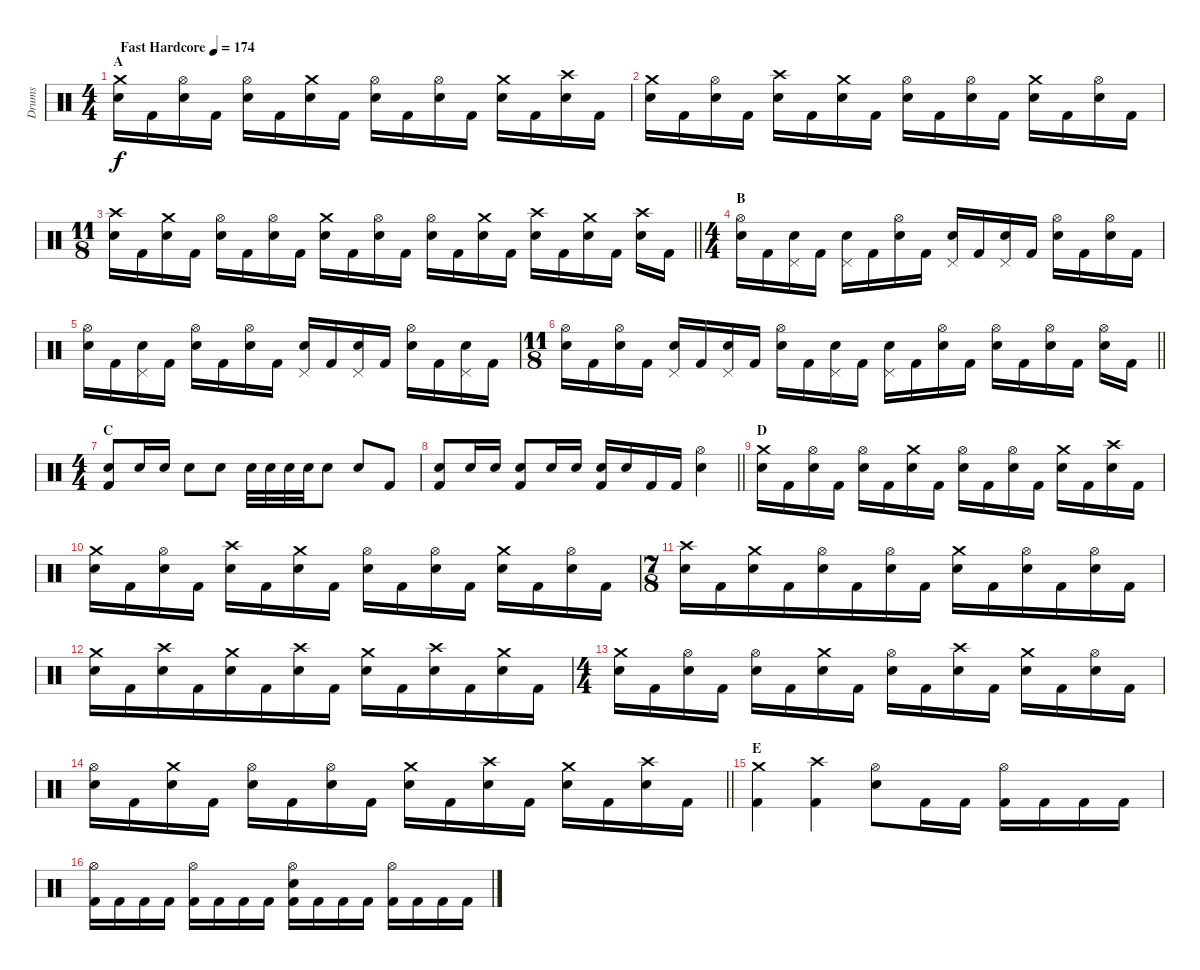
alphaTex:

\track ("Drums" "Drums") {instrument percussion}
\staff {score}
\articulation defaults
\ts (4 4)
\section ("" "A")
\tempo (174 "Fast Hardcore")
\clef neutral
\ks c
("Crash medium (hit)" "Electric Snare (hit)").16{dy f} "Kick (hit) 2".16 ("Hi-Hat (open)" "Electric Snare (hit)").16 "Kick (hit) 2".16 ("Hi-Hat (open)" "Electric Snare (hit)").16 "Kick (hit) 2".16 ("Crash medium (hit)" "Electric Snare (hit)").16 "Kick (hit) 2".16 ("Hi-Hat (open)" "Electric Snare (hit)").16 "Kick (hit) 2".16 ("Hi-Hat (open)" "Electric Snare (hit)").16 "Kick (hit) 2".16 ("Crash medium (hit)" "Electric Snare (hit)").16 "Kick (hit) 2".16 ("Crash high (hit)" "Electric Snare (hit)").16 "Kick (hit) 2".16 |
("Crash medium (hit)" "Electric Snare (hit)").16 "Kick (hit) 2".16 ("Hi-Hat (open)" "Electric Snare (hit)").16 "Kick (hit) 2".16 ("Crash high (hit)" "Electric Snare (hit)").16 "Kick (hit) 2".16 ("Crash medium (hit)" "Electric Snare (hit)").16 "Kick (hit) 2".16 ("Hi-Hat (open)" "Electric Snare (hit)").16 "Kick (hit) 2".16 ("Hi-Hat (open)" "Electric Snare (hit)").16 "Kick (hit) 2".16 ("Crash medium (hit)" "Electric Snare (hit)").16 "Kick (hit) 2".16 ("Hi-Hat (open)" "Electric Snare (hit)").16 "Kick (hit) 2".16 |
\ts (11 8)
\barLineRight lightlight
("Crash high (hit)" "Electric Snare (hit)").16 "Kick (hit) 2".16 ("Crash medium (hit)" "Electric Snare (hit)").16 "Kick (hit) 2".16 ("Hi-Hat (open)" "Electric Snare (hit)").16 "Kick (hit) 2".16 ("Hi-Hat (open)" "Electric Snare (hit)").16 "Kick (hit) 2".16 ("Crash medium (hit)" "Electric Snare (hit)").16 "Kick (hit) 2".16 ("Hi-Hat (open)" "Electric Snare (hit)").16 "Kick (hit) 2".16 ("Hi-Hat (open)" "Electric Snare (hit)").16 "Kick (hit) 2".16 ("Crash medium (hit)" "Electric Snare (hit)").16 "Kick (hit) 2".16 ("Crash high (hit)" "Electric Snare (hit)").16 "Kick (hit) 2".16 ("Crash medium (hit)" "Electric Snare (hit)").16 "Kick (hit) 2".16 ("Crash high (hit)" "Electric Snare (hit)").16 "Kick (hit) 2".16 |
\ts (4 4)
\section ("" "B")
("Hi-Hat (open)" "Electric Snare (hit)").16{volume 6} "Kick (hit) 2".16 ("Pedal Hi-Hat (hit)" "Electric Snare (hit)").16 "Kick (hit) 2".16 ("Pedal Hi-Hat (hit)" "Electric Snare (hit)").16 "Kick (hit) 2".16 ("Hi-Hat (open)" "Electric Snare (hit)").16 "Kick (hit) 2".16 ("Pedal Hi-Hat (hit)" "Electric Snare (hit)").16 "Kick (hit) 2".16 ("Pedal Hi-Hat (hit)" "Electric Snare (hit)").16 "Kick (hit) 2".16 ("Hi-Hat (open)" "Electric Snare (hit)").16 "Kick (hit) 2".16 ("Hi-Hat (open)" "Electric Snare (hit)").16 "Kick (hit) 2".16 |
("Hi-Hat (open)" "Electric Snare (hit)").16 "Kick (hit) 2".16 ("Pedal Hi-Hat (hit)" "Electric Snare (hit)").16 "Kick (hit) 2".16 ("Hi-Hat (open)" "Electric Snare (hit)").16 "Kick (hit) 2".16 ("Hi-Hat (open)" "Electric Snare (hit)").16 "Kick (hit) 2".16 ("Pedal Hi-Hat (hit)" "Electric Snare (hit)").16 "Kick (hit) 2".16 ("Pedal Hi-Hat (hit)" "Electric Snare (hit)").16 "Kick (hit) 2".16 ("Hi-Hat (open)" "Electric Snare (hit)").16 "Kick (hit) 2".16 ("Pedal Hi-Hat (hit)" "Electric Snare (hit)").16 "Kick (hit) 2".16 |
\ts (11 8)
\barLineRight lightlight
("Hi-Hat (open)" "Electric Snare (hit)").16 "Kick (hit) 2".16 ("Hi-Hat (open)" "Electric Snare (hit)").16 "Kick (hit) 2".16 ("Pedal Hi-Hat (hit)" "Electric Snare (hit)").16 "Kick (hit) 2".16 ("Pedal Hi-Hat (hit)" "Electric Snare (hit)").16 "Kick (hit) 2".16 ("Hi-Hat (open)" "Electric Snare (hit)").16 "Kick (hit) 2".16 ("Pedal Hi-Hat (hit)" "Electric Snare (hit)").16 "Kick (hit) 2".16 ("Pedal Hi-Hat (hit)" "Electric Snare (hit)").16 "Kick (hit) 2".16 ("Hi-Hat (open)" "Electric Snare (hit)").16 "Kick (hit) 2".16 ("Hi-Hat (open)" "Electric Snare (hit)").16 "Kick (hit) 2".16 ("Hi-Hat (open)" "Electric Snare (hit)").16 "Kick (hit) 2".16 ("Hi-Hat (open)" "Electric Snare (hit)").16 "Kick (hit) 2".16 |
\ts (4 4)
\section ("" "C")
("Electric Snare (hit)" "Kick (hit) 2").8{volume 14} "Electric Snare (hit)".16 "Electric Snare (hit)".16 "Electric Snare (hit)".8 "Electric Snare (hit)".8 "Electric Snare (hit)".32 "Electric Snare (hit)".32 "Electric Snare (hit)".32 "Electric Snare (hit)".32 "Electric Snare (hit)".8 "Electric Snare (hit)".8 "Kick (hit) 2".8 |
\barLineRight lightlight
("Electric Snare (hit)" "Kick (hit) 2").8 "Electric Snare (hit)".16 "Electric Snare (hit)".16 ("Electric Snare (hit)" "Kick (hit) 2").8 "Electric Snare (hit)".16 "Electric Snare (hit)".16 ("Electric Snare (hit)" "Kick (hit) 2").16 "Electric Snare (hit)".16 "Kick (hit) 2".16 "Kick (hit) 2".16 ("Hi-Hat (open)" "Electric Snare (hit)").4 |
\section ("" "D")
("Crash medium (hit)" "Electric Snare (hit)").16 "Kick (hit) 2".16 ("Hi-Hat (open)" "Electric Snare (hit)").16 "Kick (hit) 2".16 ("Hi-Hat (open)" "Electric Snare (hit)").16 "Kick (hit) 2".16 ("Crash medium (hit)" "Electric Snare (hit)").16 "Kick (hit) 2".16 ("Hi-Hat (open)" "Electric Snare (hit)").16 "Kick (hit) 2".16 ("Hi-Hat (open)" "Electric Snare (hit)").16 "Kick (hit) 2".16 ("Crash medium (hit)" "Electric Snare (hit)").16 "Kick (hit) 2".16 ("Crash high (hit)" "Electric Snare (hit)").16 "Kick (hit) 2".16 |
("Crash medium (hit)" "Electric Snare (hit)").16 "Kick (hit) 2".16 ("Hi-Hat (open)" "Electric Snare (hit)").16 "Kick (hit) 2".16 ("Crash high (hit)" "Electric Snare (hit)").16 "Kick (hit) 2".16 ("Crash medium (hit)" "Electric Snare (hit)").16 "Kick (hit) 2".16 ("Hi-Hat (open)" "Electric Snare (hit)").16 "Kick (hit) 2".16 ("Hi-Hat (open)" "Electric Snare (hit)").16 "Kick (hit) 2".16 ("Crash medium (hit)" "Electric Snare (hit)").16 "Kick (hit) 2".16 ("Hi-Hat (open)" "Electric Snare (hit)").16 "Kick (hit) 2".16 |
\ts (7 8)
("Crash high (hit)" "Electric Snare (hit)").16 "Kick (hit) 2".16 ("Crash medium (hit)" "Electric Snare (hit)").16 "Kick (hit) 2".16 ("Hi-Hat (open)" "Electric Snare (hit)").16 "Kick (hit) 2".16 ("Hi-Hat (open)" "Electric Snare (hit)").16 "Kick (hit) 2".16 ("Crash medium (hit)" "Electric Snare (hit)").16 "Kick (hit) 2".16 ("Hi-Hat (open)" "Electric Snare (hit)").16 "Kick (hit) 2".16 ("Hi-Hat (open)" "Electric Snare (hit)").16 "Kick (hit) 2".16 |
("Crash medium (hit)" "Electric Snare (hit)").16 "Kick (hit) 2".16 ("Crash high (hit)" "Electric Snare (hit)").16 "Kick (hit) 2".16 ("Crash medium (hit)" "Electric Snare (hit)").16 "Kick (hit) 2".16 ("Crash high (hit)" "Electric Snare (hit)").16 "Kick (hit) 2".16 ("Crash medium (hit)" "Electric Snare (hit)").16 "Kick (hit) 2".16 ("Crash high (hit)" "Electric Snare (hit)").16 "Kick (hit) 2".16 ("Crash medium (hit)" "Electric Snare (hit)").16 "Kick (hit) 2".16 |
\ts (4 4)
("Crash medium (hit)" "Electric Snare (hit)").16 "Kick (hit) 2".16 ("Hi-Hat (open)" "Electric Snare (hit)").16 "Kick (hit) 2".16 ("Hi-Hat (open)" "Electric Snare (hit)").16 "Kick (hit) 2".16 ("Crash medium (hit)" "Electric Snare (hit)").16 "Kick (hit) 2".16 ("Hi-Hat (open)" "Electric Snare (hit)").16 "Kick (hit) 2".16 ("Crash high (hit)" "Electric Snare (hit)").16 "Kick (hit) 2".16 ("Crash medium (hit)" "Electric Snare (hit)").16 "Kick (hit) 2".16 ("Hi-Hat (open)" "Electric Snare (hit)").16 "Kick (hit) 2".16 |
\barLineRight lightlight
("Hi-Hat (open)" "Electric Snare (hit)").16 "Kick (hit) 2".16 ("Crash medium (hit)" "Electric Snare (hit)").16 "Kick (hit) 2".16 ("Hi-Hat (open)" "Electric Snare (hit)").16 "Kick (hit) 2".16 ("Hi-Hat (open)" "Electric Snare (hit)").16 "Kick (hit) 2".16 ("Crash medium (hit)" "Electric Snare (hit)").16 "Kick (hit) 2".16 ("Crash high (hit)" "Electric Snare (hit)").16 "Kick (hit) 2".16 ("Crash medium (hit)" "Electric Snare (hit)").16 "Kick (hit) 2".16 ("Crash high (hit)" "Electric Snare (hit)").16 "Kick (hit) 2".16 |
\section ("" "E")
("Crash medium (hit)" "Kick (hit) 2").4 ("Crash high (hit)" "Kick (hit) 2").4 ("Hi-Hat (open)" "Electric Snare (hit)").8 "Kick (hit) 2".16 "Kick (hit) 2".16 ("Hi-Hat (open)" "Kick (hit) 2").16 "Kick (hit) 2".16 "Kick (hit) 2".16 "Kick (hit) 2".16 |
("Hi-Hat (open)" "Kick (hit) 2").16 "Kick (hit) 2".16 "Kick (hit) 2".16 "Kick (hit) 2".16 ("Hi-Hat (open)" "Kick (hit) 2").16 "Kick (hit) 2".16 "Kick (hit) 2".16 "Kick (hit) 2".16 ("Hi-Hat (open)" "Electric Snare (hit)" "Kick (hit) 2").16 "Kick (hit) 2".16 "Kick (hit) 2".16 "Kick (hit) 2".16 ("Hi-Hat (open)" "Kick (hit) 2").16 "Kick (hit) 2".16 "Kick (hit) 2".16 "Kick (hit) 2".16
